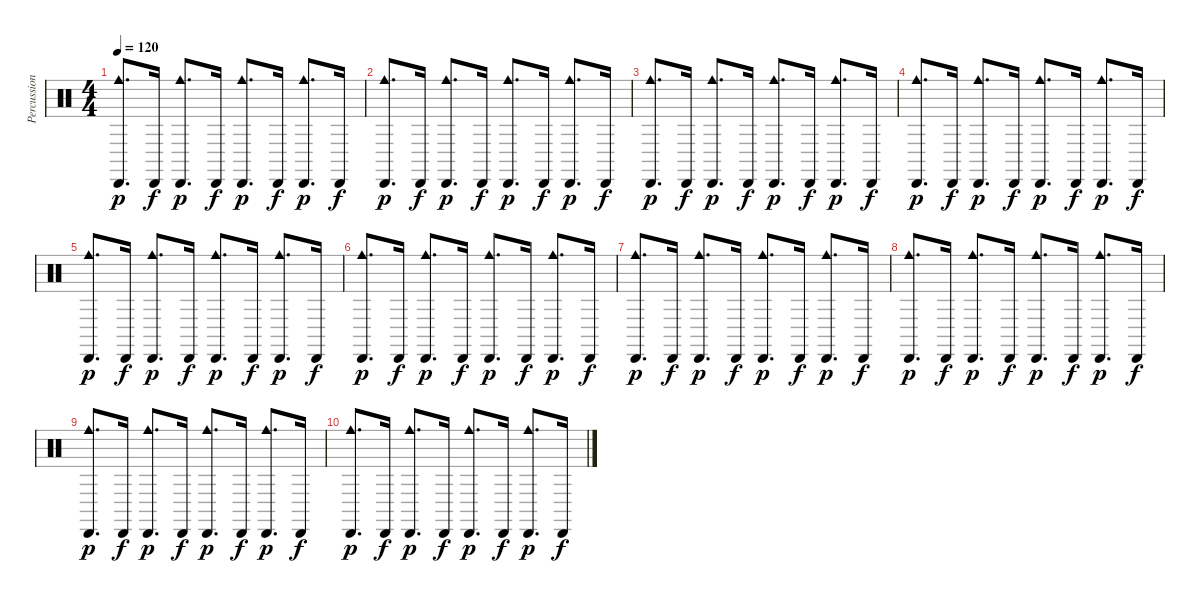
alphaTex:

\track ("Percussions" "Percussion") {instrument percussion}
\staff {score}
\articulation defaults
\ts (4 4)
\tempo 120
\clef neutral
\ks c
("Cabasa (hit)" "Cowbell medium (hit)").8{d dy p} "Cabasa (hit)".16{dy f} ("Cabasa (hit)" "Cowbell medium (hit)").8{d dy p} "Cabasa (hit)".16{dy f} ("Cabasa (hit)" "Cowbell medium (hit)").8{d dy p} "Cabasa (hit)".16{dy f} ("Cabasa (hit)" "Cowbell medium (hit)").8{d dy p} "Cabasa (hit)".16{dy f} |
("Cabasa (hit)" "Cowbell medium (hit)").8{d dy p} "Cabasa (hit)".16{dy f} ("Cabasa (hit)" "Cowbell medium (hit)").8{d dy p} "Cabasa (hit)".16{dy f} ("Cabasa (hit)" "Cowbell medium (hit)").8{d dy p} "Cabasa (hit)".16{dy f} ("Cabasa (hit)" "Cowbell medium (hit)").8{d dy p} "Cabasa (hit)".16{dy f} |
("Cabasa (hit)" "Cowbell medium (hit)").8{d dy p} "Cabasa (hit)".16{dy f} ("Cabasa (hit)" "Cowbell medium (hit)").8{d dy p} "Cabasa (hit)".16{dy f} ("Cabasa (hit)" "Cowbell medium (hit)").8{d dy p} "Cabasa (hit)".16{dy f} ("Cabasa (hit)" "Cowbell medium (hit)").8{d dy p} "Cabasa (hit)".16{dy f} |
("Cabasa (hit)" "Cowbell medium (hit)").8{d dy p} "Cabasa (hit)".16{dy f} ("Cabasa (hit)" "Cowbell medium (hit)").8{d dy p} "Cabasa (hit)".16{dy f} ("Cabasa (hit)" "Cowbell medium (hit)").8{d dy p} "Cabasa (hit)".16{dy f} ("Cabasa (hit)" "Cowbell medium (hit)").8{d dy p} "Cabasa (hit)".16{dy f} |
("Cabasa (hit)" "Cowbell medium (hit)").8{d dy p} "Cabasa (hit)".16{dy f} ("Cabasa (hit)" "Cowbell medium (hit)").8{d dy p} "Cabasa (hit)".16{dy f} ("Cabasa (hit)" "Cowbell medium (hit)").8{d dy p} "Cabasa (hit)".16{dy f} ("Cabasa (hit)" "Cowbell medium (hit)").8{d dy p} "Cabasa (hit)".16{dy f} |
("Cabasa (hit)" "Cowbell medium (hit)").8{d dy p} "Cabasa (hit)".16{dy f} ("Cabasa (hit)" "Cowbell medium (hit)").8{d dy p} "Cabasa (hit)".16{dy f} ("Cabasa (hit)" "Cowbell medium (hit)").8{d dy p} "Cabasa (hit)".16{dy f} ("Cabasa (hit)" "Cowbell medium (hit)").8{d dy p} "Cabasa (hit)".16{dy f} |
("Cabasa (hit)" "Cowbell medium (hit)").8{d dy p} "Cabasa (hit)".16{dy f} ("Cabasa (hit)" "Cowbell medium (hit)").8{d dy p} "Cabasa (hit)".16{dy f} ("Cabasa (hit)" "Cowbell medium (hit)").8{d dy p} "Cabasa (hit)".16{dy f} ("Cabasa (hit)" "Cowbell medium (hit)").8{d dy p} "Cabasa (hit)".16{dy f} |
("Cabasa (hit)" "Cowbell medium (hit)").8{d dy p} "Cabasa (hit)".16{dy f} ("Cabasa (hit)" "Cowbell medium (hit)").8{d dy p} "Cabasa (hit)".16{dy f} ("Cabasa (hit)" "Cowbell medium (hit)").8{d dy p} "Cabasa (hit)".16{dy f} ("Cabasa (hit)" "Cowbell medium (hit)").8{d dy p} "Cabasa (hit)".16{dy f} |
("Cabasa (hit)" "Cowbell medium (hit)").8{d dy p} "Cabasa (hit)".16{dy f} ("Cabasa (hit)" "Cowbell medium (hit)").8{d dy p} "Cabasa (hit)".16{dy f} ("Cabasa (hit)" "Cowbell medium (hit)").8{d dy p} "Cabasa (hit)".16{dy f} ("Cabasa (hit)" "Cowbell medium (hit)").8{d dy p} "Cabasa (hit)".16{dy f} |
("Cabasa (hit)" "Cowbell medium (hit)").8{d dy p} "Cabasa (hit)".16{dy f} ("Cabasa (hit)" "Cowbell medium (hit)").8{d dy p} "Cabasa (hit)".16{dy f} ("Cabasa (hit)" "Cowbell medium (hit)").8{d dy p} "Cabasa (hit)".16{dy f} ("Cabasa (hit)" "Cowbell medium (hit)").8{d dy p} "Cabasa (hit)".16{dy f}
